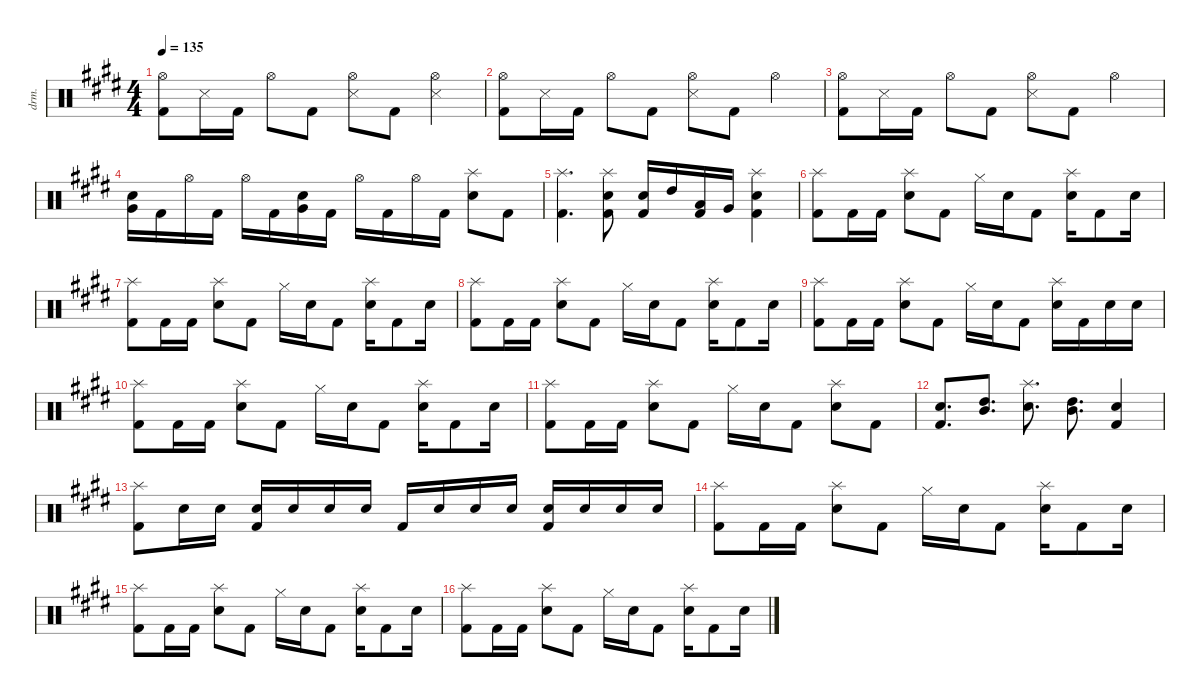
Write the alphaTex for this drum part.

\defaultSystemsLayout 4
\hideDynamics
\bracketExtendMode nobrackets
\track ("Drumkit" "drm.") {instrument percussion}
\staff {score}
\articulation defaults
\ts (4 4)
\tempo 135
\clef neutral
\ks e
("Hi-Hat (open)"{acc forcenatural} "Kick (hit) 2"{acc forcenatural}).8{dy mf} "Snare (side stick) 3"{acc forcenatural}.16 "Kick (hit) 2"{acc forcenatural}.16 "Hi-Hat (open)"{acc forcenatural}.8 "Kick (hit) 2"{acc forcenatural}.8 ("Hi-Hat (open)"{acc forcenatural} "Snare (side stick) 3"{acc forcenatural}).8 "Kick (hit) 2"{acc forcenatural}.8 ("Hi-Hat (open)"{acc forcenatural} "Snare (side stick) 3"{acc forcenatural}).4 |
("Hi-Hat (open)"{acc forcenatural} "Kick (hit) 2"{acc forcenatural}).8 "Snare (side stick) 3"{acc forcenatural}.16 "Kick (hit) 2"{acc forcenatural}.16 "Hi-Hat (open)"{acc forcenatural}.8 "Kick (hit) 2"{acc forcenatural}.8 ("Hi-Hat (open)"{acc forcenatural} "Snare (side stick) 3"{acc forcenatural}).8 "Kick (hit) 2"{acc forcenatural}.8 "Hi-Hat (open)"{acc forcenatural}.4 |
("Hi-Hat (open)"{acc forcenatural} "Kick (hit) 2"{acc forcenatural}).8 "Snare (side stick) 3"{acc forcenatural}.16 "Kick (hit) 2"{acc forcenatural}.16 "Hi-Hat (open)"{acc forcenatural}.8 "Kick (hit) 2"{acc forcenatural}.8 ("Hi-Hat (open)"{acc forcenatural} "Snare (side stick) 3"{acc forcenatural}).8 "Kick (hit) 2"{acc forcenatural}.8 "Hi-Hat (open)"{acc forcenatural}.4 |
("Very Low Tom (hit)"{acc forcenatural} "Snare (hit) 2"{acc forcenatural}).16 "Kick (hit) 2"{acc forcenatural}.16 "Hi-Hat (open)"{acc forcenatural}.16 "Kick (hit) 2"{acc forcenatural}.16 "Hi-Hat (open)"{acc forcenatural}.16 "Kick (hit) 2"{acc forcenatural}.16 ("Very Low Tom (hit)"{acc forcenatural} "Snare (hit) 2"{acc forcenatural}).16 "Kick (hit) 2"{acc forcenatural}.16 "Hi-Hat (open)"{acc forcenatural}.16 "Kick (hit) 2"{acc forcenatural}.16 "Hi-Hat (open)"{acc forcenatural}.16 "Kick (hit) 2"{acc forcenatural}.16 ("Splash (hit)"{acc forcenatural} "Snare (hit) 2"{acc forcenatural}).8 "Kick (hit) 2"{acc forcenatural}.8 |
("Kick (hit) 2"{acc forcenatural} "Splash (hit)"{acc forcenatural}).4{d} ("Splash (hit)"{acc forcenatural} "Snare (hit) 2"{acc forcenatural} "Kick (hit) 2"{acc forcenatural}).8 ("Kick (hit) 2"{acc forcenatural} "Snare (hit) 2"{acc forcenatural}).16 "High Tom (hit)"{acc forcenatural}.16 ("Kick (hit) 2"{acc forcenatural} "Low Tom (hit)"{acc forcenatural}).16 "Very Low Tom (hit)"{acc forcenatural}.16 ("Kick (hit) 2"{acc forcenatural} "Splash (hit)"{acc forcenatural} "Snare (hit) 2"{acc forcenatural}).4 |
("Kick (hit) 2"{acc forcenatural} "Splash (hit)"{acc forcenatural}).8 "Kick (hit) 2"{acc forcenatural}.16 "Kick (hit) 2"{acc forcenatural}.16 ("Splash (hit)"{acc forcenatural} "Snare (hit) 2"{acc forcenatural}).8 "Kick (hit) 2"{acc forcenatural}.8 "Hi-Hat (closed)"{acc forcenatural}.16 "Snare (hit) 2"{acc forcenatural}.16 "Kick (hit) 2"{acc forcenatural}.8 ("Splash (hit)"{acc forcenatural} "Snare (hit) 2"{acc forcenatural}).16 "Kick (hit) 2"{acc forcenatural}.8 "Snare (hit) 2"{acc forcenatural}.16 |
("Kick (hit) 2"{acc forcenatural} "Splash (hit)"{acc forcenatural}).8 "Kick (hit) 2"{acc forcenatural}.16 "Kick (hit) 2"{acc forcenatural}.16 ("Splash (hit)"{acc forcenatural} "Snare (hit) 2"{acc forcenatural}).8 "Kick (hit) 2"{acc forcenatural}.8 "Hi-Hat (closed)"{acc forcenatural}.16 "Snare (hit) 2"{acc forcenatural}.16 "Kick (hit) 2"{acc forcenatural}.8 ("Splash (hit)"{acc forcenatural} "Snare (hit) 2"{acc forcenatural}).16 "Kick (hit) 2"{acc forcenatural}.8 "Snare (hit) 2"{acc forcenatural}.16 |
("Kick (hit) 2"{acc forcenatural} "Splash (hit)"{acc forcenatural}).8 "Kick (hit) 2"{acc forcenatural}.16 "Kick (hit) 2"{acc forcenatural}.16 ("Splash (hit)"{acc forcenatural} "Snare (hit) 2"{acc forcenatural}).8 "Kick (hit) 2"{acc forcenatural}.8 "Hi-Hat (closed)"{acc forcenatural}.16 "Snare (hit) 2"{acc forcenatural}.16 "Kick (hit) 2"{acc forcenatural}.8 ("Splash (hit)"{acc forcenatural} "Snare (hit) 2"{acc forcenatural}).16 "Kick (hit) 2"{acc forcenatural}.8 "Snare (hit) 2"{acc forcenatural}.16 |
("Kick (hit) 2"{acc forcenatural} "Splash (hit)"{acc forcenatural}).8 "Kick (hit) 2"{acc forcenatural}.16 "Kick (hit) 2"{acc forcenatural}.16 ("Splash (hit)"{acc forcenatural} "Snare (hit) 2"{acc forcenatural}).8 "Kick (hit) 2"{acc forcenatural}.8 "Hi-Hat (closed)"{acc forcenatural}.16 "Snare (hit) 2"{acc forcenatural}.16 "Kick (hit) 2"{acc forcenatural}.8 ("Splash (hit)"{acc forcenatural} "Snare (hit) 2"{acc forcenatural}).16 "Kick (hit) 2"{acc forcenatural}.16 "Snare (hit) 2"{acc forcenatural}.16 "Snare (hit) 2"{acc forcenatural}.16 |
("Kick (hit) 2"{acc forcenatural} "Splash (hit)"{acc forcenatural}).8 "Kick (hit) 2"{acc forcenatural}.16 "Kick (hit) 2"{acc forcenatural}.16 ("Splash (hit)"{acc forcenatural} "Snare (hit) 2"{acc forcenatural}).8 "Kick (hit) 2"{acc forcenatural}.8 "Hi-Hat (closed)"{acc forcenatural}.16 "Snare (hit) 2"{acc forcenatural}.16 "Kick (hit) 2"{acc forcenatural}.8 ("Splash (hit)"{acc forcenatural} "Snare (hit) 2"{acc forcenatural}).16 "Kick (hit) 2"{acc forcenatural}.8 "Snare (hit) 2"{acc forcenatural}.16 |
("Kick (hit) 2"{acc forcenatural} "Splash (hit)"{acc forcenatural}).8 "Kick (hit) 2"{acc forcenatural}.16 "Kick (hit) 2"{acc forcenatural}.16 ("Splash (hit)"{acc forcenatural} "Snare (hit) 2"{acc forcenatural}).8 "Kick (hit) 2"{acc forcenatural}.8 "Hi-Hat (closed)"{acc forcenatural}.16 "Snare (hit) 2"{acc forcenatural}.16 "Kick (hit) 2"{acc forcenatural}.8 ("Splash (hit)"{acc forcenatural} "Snare (hit) 2"{acc forcenatural}).8 "Kick (hit) 2"{acc forcenatural}.8 |
("Kick (hit) 2"{acc forcenatural} "Snare (hit) 2"{acc forcenatural}).8{d} ("Mid Tom (hit)"{acc forcenatural} "High Tom (hit)"{acc forcenatural}).8{d} ("Splash (hit)"{acc forcenatural} "Snare (hit) 2"{acc forcenatural}).8{d} ("Mid Tom (hit)"{acc forcenatural} "High Tom (hit)"{acc forcenatural}).8{d} ("Kick (hit) 2"{acc forcenatural} "Snare (hit) 2"{acc forcenatural}).4 |
("Kick (hit) 2"{acc forcenatural} "Splash (hit)"{acc forcenatural}).8 "Snare (hit) 2"{acc forcenatural}.16 "Snare (hit) 2"{acc forcenatural}.16 ("Snare (hit) 2"{acc forcenatural} "Kick (hit) 2"{acc forcenatural}).16 "Snare (hit) 2"{acc forcenatural}.16 "Snare (hit) 2"{acc forcenatural}.16 "Snare (hit) 2"{acc forcenatural}.16 "Kick (hit) 2"{acc forcenatural}.16 "Snare (hit) 2"{acc forcenatural}.16 "Snare (hit) 2"{acc forcenatural}.16 "Snare (hit) 2"{acc forcenatural}.16 ("Kick (hit) 2"{acc forcenatural} "Snare (hit) 2"{acc forcenatural}).16 "Snare (hit) 2"{acc forcenatural}.16 "Snare (hit) 2"{acc forcenatural}.16 "Snare (hit) 2"{acc forcenatural}.16 |
("Kick (hit) 2"{acc forcenatural} "Splash (hit)"{acc forcenatural}).8 "Kick (hit) 2"{acc forcenatural}.16 "Kick (hit) 2"{acc forcenatural}.16 ("Splash (hit)"{acc forcenatural} "Snare (hit) 2"{acc forcenatural}).8 "Kick (hit) 2"{acc forcenatural}.8 "Hi-Hat (closed)"{acc forcenatural}.16 "Snare (hit) 2"{acc forcenatural}.16 "Kick (hit) 2"{acc forcenatural}.8 ("Splash (hit)"{acc forcenatural} "Snare (hit) 2"{acc forcenatural}).16 "Kick (hit) 2"{acc forcenatural}.8 "Snare (hit) 2"{acc forcenatural}.16 |
("Kick (hit) 2"{acc forcenatural} "Splash (hit)"{acc forcenatural}).8 "Kick (hit) 2"{acc forcenatural}.16 "Kick (hit) 2"{acc forcenatural}.16 ("Splash (hit)"{acc forcenatural} "Snare (hit) 2"{acc forcenatural}).8 "Kick (hit) 2"{acc forcenatural}.8 "Hi-Hat (closed)"{acc forcenatural}.16 "Snare (hit) 2"{acc forcenatural}.16 "Kick (hit) 2"{acc forcenatural}.8 ("Splash (hit)"{acc forcenatural} "Snare (hit) 2"{acc forcenatural}).16 "Kick (hit) 2"{acc forcenatural}.8 "Snare (hit) 2"{acc forcenatural}.16 |
("Kick (hit) 2"{acc forcenatural} "Splash (hit)"{acc forcenatural}).8 "Kick (hit) 2"{acc forcenatural}.16 "Kick (hit) 2"{acc forcenatural}.16 ("Splash (hit)"{acc forcenatural} "Snare (hit) 2"{acc forcenatural}).8 "Kick (hit) 2"{acc forcenatural}.8 "Hi-Hat (closed)"{acc forcenatural}.16 "Snare (hit) 2"{acc forcenatural}.16 "Kick (hit) 2"{acc forcenatural}.8 ("Splash (hit)"{acc forcenatural} "Snare (hit) 2"{acc forcenatural}).16 "Kick (hit) 2"{acc forcenatural}.8 "Snare (hit) 2"{acc forcenatural}.16
